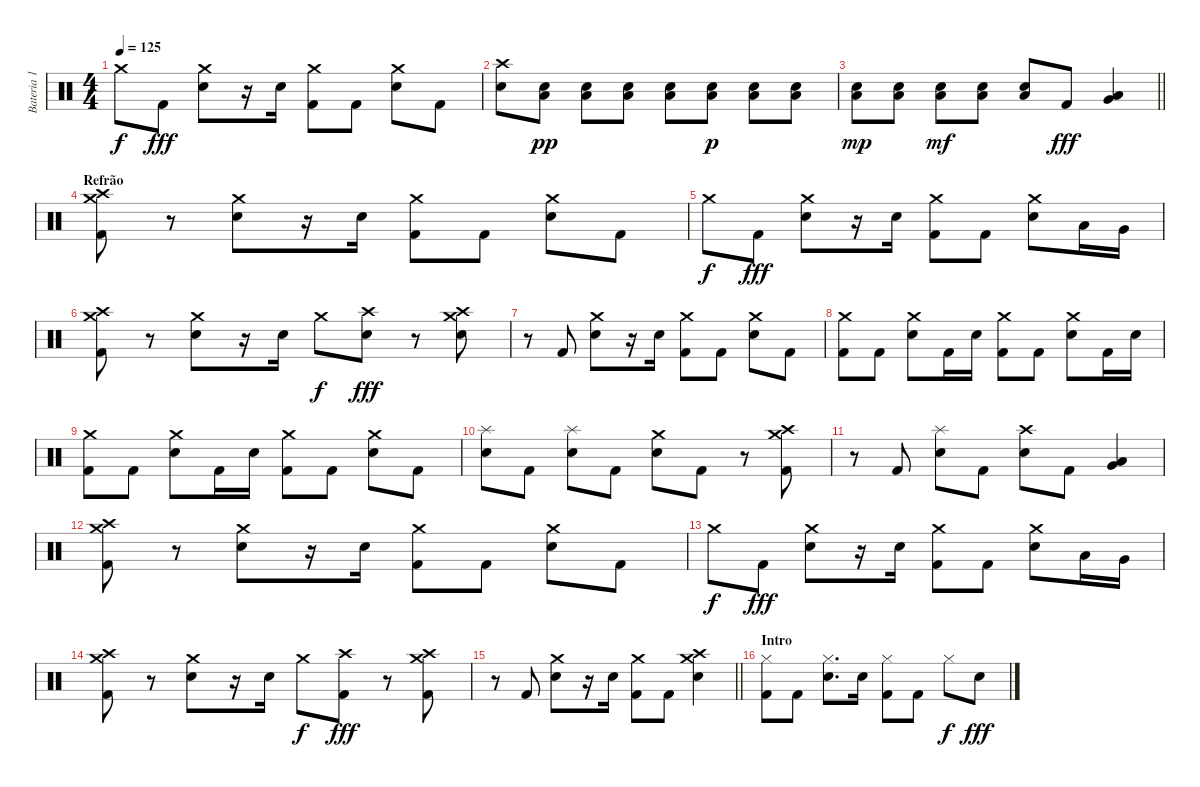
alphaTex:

\track ("Bateria 1" "Bateria 1") {instrument percussion}
\staff {score}
\articulation defaults
\ts (4 4)
\tempo 125
\clef neutral
\ks c "Crash medium (hit)".8{dy f} "Kick (hit) 2".8{dy fff}
("Crash medium (hit)" "Electric Snare (hit)").8 r.16 "Electric Snare (hit)".16 ("Crash medium (hit)" "Kick (hit) 2").8 "Kick (hit) 2".8 ("Crash medium (hit)" "Electric Snare (hit)").8 "Kick (hit) 2".8 |
("Crash high (hit)" "Electric Snare (hit)").8 ("Low Floor Tom (hit)" "Electric Snare (hit)").8{dy pp} ("Low Floor Tom (hit)" "Electric Snare (hit)").8 ("Low Floor Tom (hit)" "Electric Snare (hit)").8 ("Low Floor Tom (hit)" "Electric Snare (hit)").8 ("Low Floor Tom (hit)" "Electric Snare (hit)").8{dy p} ("Low Floor Tom (hit)" "Electric Snare (hit)").8 ("Low Floor Tom (hit)" "Electric Snare (hit)").8 |
\barLineRight lightlight
("Low Floor Tom (hit)" "Electric Snare (hit)").8{dy mp} ("Low Floor Tom (hit)" "Electric Snare (hit)").8 ("Low Floor Tom (hit)" "Electric Snare (hit)").8{dy mf} ("Low Floor Tom (hit)" "Electric Snare (hit)").8 ("Low Floor Tom (hit)" "Electric Snare (hit)").8 "Kick (hit) 2".8{dy fff} ("Very Low Tom (hit)" "Low Floor Tom (hit)").4 |
\section ("" "Refrão")
("Crash high (hit)" "Crash medium (hit)" "Kick (hit) 2").8 r.8 ("Crash medium (hit)" "Electric Snare (hit)").8 r.16 "Electric Snare (hit)".16 ("Crash medium (hit)" "Kick (hit) 2").8 "Kick (hit) 2".8 ("Crash medium (hit)" "Electric Snare (hit)").8 "Kick (hit) 2".8 |
"Crash medium (hit)".8{dy f} "Kick (hit) 2".8{dy fff} ("Crash medium (hit)" "Electric Snare (hit)").8 r.16 "Electric Snare (hit)".16 ("Crash medium (hit)" "Kick (hit) 2").8 "Kick (hit) 2".8 ("Crash medium (hit)" "Electric Snare (hit)").8 "Low Tom (hit)".16 "Very Low Tom (hit)".16 |
("Crash high (hit)" "Crash medium (hit)" "Kick (hit) 2").8 r.8 ("Crash medium (hit)" "Electric Snare (hit)").8 r.16 "Electric Snare (hit)".16 "Crash medium (hit)".8{dy f} ("Crash high (hit)" "Electric Snare (hit)").8{dy fff} r.8 ("Crash high (hit)" "Crash medium (hit)" "Electric Snare (hit)").8 |
r.8 "Kick (hit) 2".8 ("Crash medium (hit)" "Electric Snare (hit)").8 r.16 "Electric Snare (hit)".16 ("Crash medium (hit)" "Kick (hit) 2").8 "Kick (hit) 2".8 ("Crash medium (hit)" "Electric Snare (hit)").8 "Kick (hit) 2".8 |
("Crash medium (hit)" "Kick (hit) 2").8 "Kick (hit) 2".8 ("Crash medium (hit)" "Electric Snare (hit)").8 "Kick (hit) 2".16 "Electric Snare (hit)".16 ("Crash medium (hit)" "Kick (hit) 2").8 "Kick (hit) 2".8 ("Crash medium (hit)" "Electric Snare (hit)").8 "Kick (hit) 2".16 "Electric Snare (hit)".16 |
("Crash medium (hit)" "Kick (hit) 2").8 "Kick (hit) 2".8 ("Crash medium (hit)" "Electric Snare (hit)").8 "Kick (hit) 2".16 "Electric Snare (hit)".16 ("Crash medium (hit)" "Kick (hit) 2").8 "Kick (hit) 2".8 ("Crash medium (hit)" "Electric Snare (hit)").8 "Kick (hit) 2".8 |
("Splash (hit)" "Electric Snare (hit)").8 "Kick (hit) 2".8 ("Splash (hit)" "Electric Snare (hit)").8 "Kick (hit) 2".8 ("Crash medium (hit)" "Electric Snare (hit)").8 "Kick (hit) 2".8 r.8 ("Crash high (hit)" "Crash medium (hit)" "Kick (hit) 2").8 |
r.8 "Kick (hit) 2".8 ("Splash (hit)" "Electric Snare (hit)").8 "Kick (hit) 2".8 ("Crash high (hit)" "Electric Snare (hit)").8 "Kick (hit) 2".8 ("Very Low Tom (hit)" "Low Floor Tom (hit)").4 |
("Crash high (hit)" "Crash medium (hit)" "Kick (hit) 2").8 r.8 ("Crash medium (hit)" "Electric Snare (hit)").8 r.16 "Electric Snare (hit)".16 ("Crash medium (hit)" "Kick (hit) 2").8 "Kick (hit) 2".8 ("Crash medium (hit)" "Electric Snare (hit)").8 "Kick (hit) 2".8 |
"Crash medium (hit)".8{dy f} "Kick (hit) 2".8{dy fff} ("Crash medium (hit)" "Electric Snare (hit)").8 r.16 "Electric Snare (hit)".16 ("Crash medium (hit)" "Kick (hit) 2").8 "Kick (hit) 2".8 ("Crash medium (hit)" "Electric Snare (hit)").8 "Low Tom (hit)".16 "Very Low Tom (hit)".16 |
("Crash high (hit)" "Crash medium (hit)" "Kick (hit) 2").8 r.8 ("Crash medium (hit)" "Electric Snare (hit)").8 r.16 "Electric Snare (hit)".16 "Crash medium (hit)".8{dy f} ("Crash high (hit)" "Kick (hit) 2").8{dy fff} r.8 ("Crash high (hit)" "Crash medium (hit)" "Kick (hit) 2").8 |
\barLineRight lightlight
r.8 "Kick (hit) 2".8 ("Crash medium (hit)" "Electric Snare (hit)").8 r.16 "Electric Snare (hit)".16 ("Crash medium (hit)" "Kick (hit) 2").8 "Kick (hit) 2".8 ("Crash high (hit)" "Crash medium (hit)" "Electric Snare (hit)").4 |
\section ("" "Intro")
("Hi-Hat (closed)" "Kick (hit) 2").8 "Kick (hit) 2".8 ("Hi-Hat (closed)" "Electric Snare (hit)").8{d} "Electric Snare (hit)".16 ("Hi-Hat (closed)" "Kick (hit) 2").8 "Kick (hit) 2".8 "Hi-Hat (closed)".8{dy f} "Electric Snare (hit)".8{dy fff}
